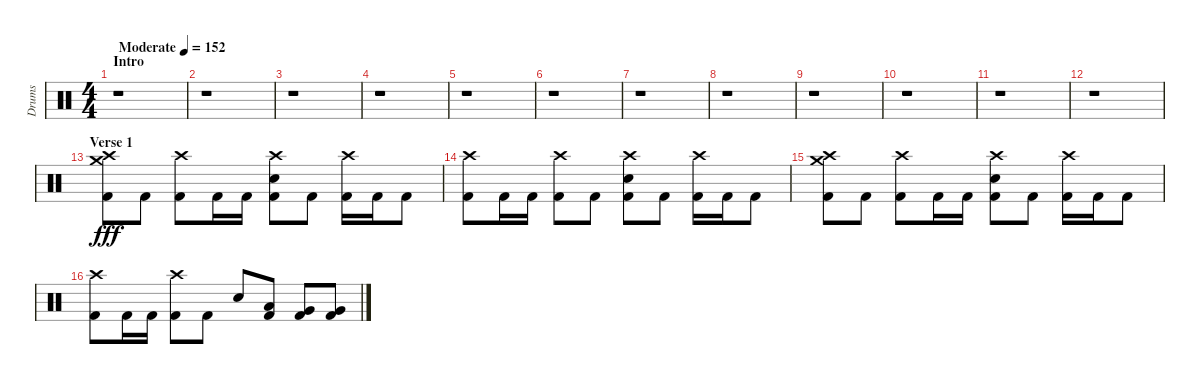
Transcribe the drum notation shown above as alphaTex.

\track ("Drums" "Drums") {instrument percussion}
\staff {score}
\articulation defaults
\ts (4 4)
\section ("" "Intro")
\tempo (152 "Moderate")
\clef neutral
\ks c
r.1{dy fff} |
r.1 |
r.1 |
r.1 |
r.1 |
r.1 |
r.1 |
r.1 |
r.1 |
r.1 |
r.1 |
r.1 |
\section ("" "Verse 1")
("Crash high (hit)" "Crash medium (hit)" "Kick (hit) 2").8 "Kick (hit) 2".8 ("Crash high (hit)" "Kick (hit) 2").8 "Kick (hit) 2".16 "Kick (hit) 2".16 ("Crash high (hit)" "Snare (hit) 2" "Kick (hit) 2").8 "Kick (hit) 2".8 ("Crash high (hit)" "Kick (hit) 2").16 "Kick (hit) 2".16 "Kick (hit) 2".8 |
("Crash high (hit)" "Kick (hit) 2").8 "Kick (hit) 2".16 "Kick (hit) 2".16 ("Crash high (hit)" "Kick (hit) 2").8 "Kick (hit) 2".8 ("Crash high (hit)" "Snare (hit) 2" "Kick (hit) 2").8 "Kick (hit) 2".8 ("Crash high (hit)" "Kick (hit) 2").16 "Kick (hit) 2".16 "Kick (hit) 2".8 |
("Crash medium (hit)" "Crash high (hit)" "Kick (hit) 2").8 "Kick (hit) 2".8 ("Crash high (hit)" "Kick (hit) 2").8 "Kick (hit) 2".16 "Kick (hit) 2".16 ("Crash high (hit)" "Snare (hit) 2" "Kick (hit) 2").8 "Kick (hit) 2".8 ("Crash high (hit)" "Kick (hit) 2").16 "Kick (hit) 2".16 "Kick (hit) 2".8 |
("Crash high (hit)" "Kick (hit) 2").8 "Kick (hit) 2".16 "Kick (hit) 2".16 ("Crash high (hit)" "Kick (hit) 2").8 "Kick (hit) 2".8 "Snare (hit) 2".8 ("Low Tom (hit)" "Kick (hit) 2").8 ("Very Low Tom (hit)" "Kick (hit) 2").8 ("Very Low Tom (hit)" "Kick (hit) 2").8
